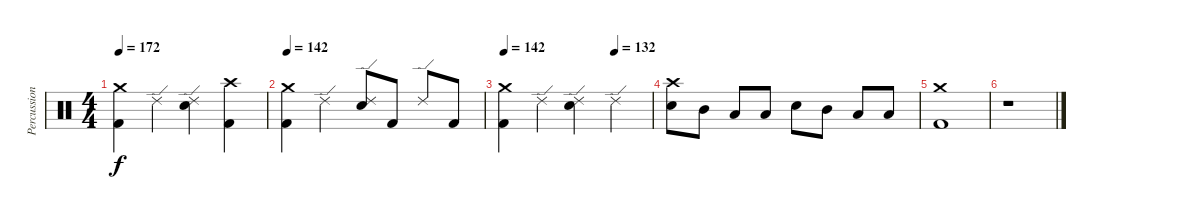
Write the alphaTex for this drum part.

\track ("Percussion" "Percussion") {instrument percussion}
\staff {score}
\articulation defaults
\ts (4 4)
\tempo 172
\clef neutral
\ks c
("Crash medium (hit)" "Kick (hit) 2").4{dy f} "Ride (edge) 2".4 ("Ride (edge) 2" "Electric Snare (hit)").4 ("Crash high (hit)" "Kick (hit) 2").4 |
\tempo 142
("Crash medium (hit)" "Kick (hit) 2").4 "Ride (edge) 2".4 ("Ride (edge) 2" "Electric Snare (hit)").8 "Kick (hit) 2".8 "Ride (edge) 2".8 "Kick (hit) 2".8 |
\tempo 142
\tempo (132 0.75)
("Crash medium (hit)" "Kick (hit) 2").4 "Ride (edge) 2".4 ("Ride (edge) 2" "Electric Snare (hit)").4 "Ride (edge) 2".4 |
("Crash high (hit)" "Electric Snare (hit)").8 "Mid Tom (hit)".8 "Low Tom (hit)".8 "Low Floor Tom (hit)".8 "Electric Snare (hit)".8 "Mid Tom (hit)".8 "Low Tom (hit)".8 "Low Floor Tom (hit)".8 |
("Crash medium (hit)" "Kick (hit) 2").1 |
r.1
